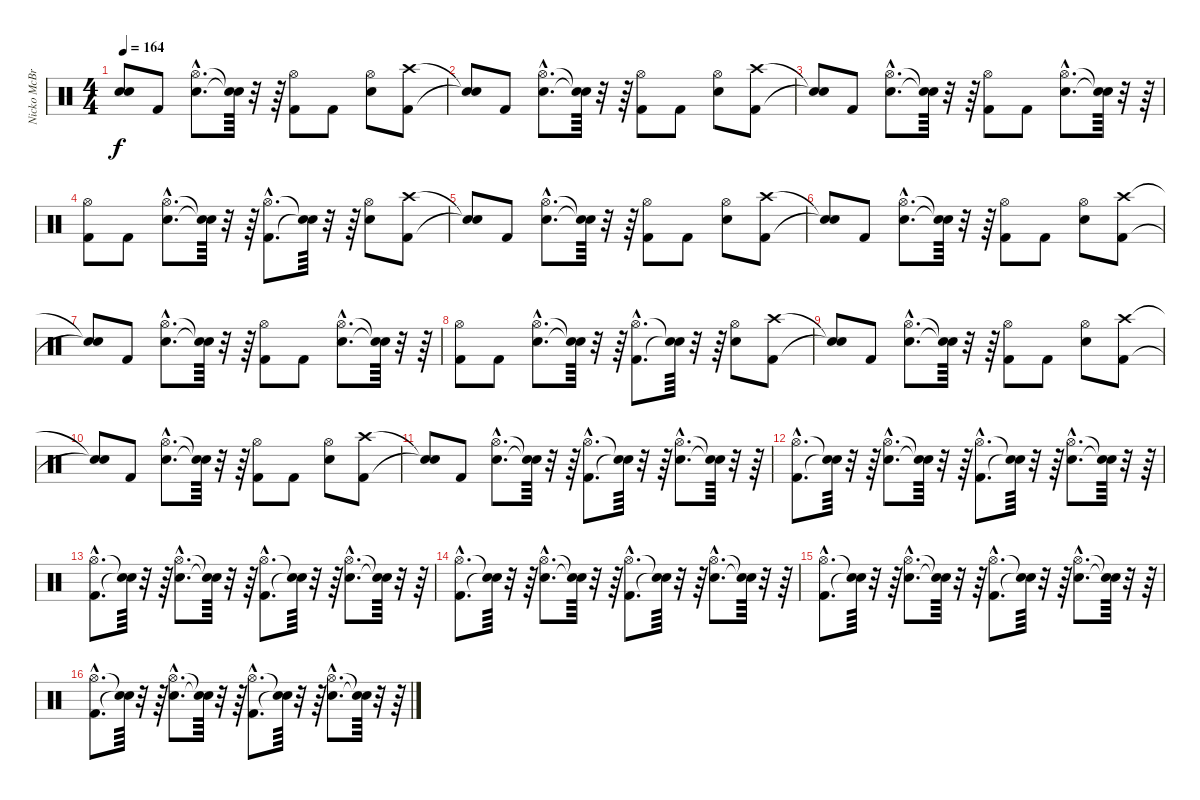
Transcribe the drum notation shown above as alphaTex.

\track ("Nicko McBrian (Drums)" "Nicko McBr") {instrument percussion}
\staff {score}
\articulation defaults
\ts (4 4)
\tempo 164
\clef neutral
\ks c
("Snare (hit)"{t} "Snare (hit)"{t}).8{dy f} "Kick (hit) 2".8 ("Snare (hit) 2"{hac} "Hi-Hat (open)"{hac}).8{d} ("Snare (hit)"{t} "Snare (hit)"{t}).64 r.32 r.64 ("Kick (hit) 2" "Hi-Hat (open)").8 "Kick (hit) 2".8 ("Snare (hit) 2" "Hi-Hat (open)").8 ("Kick (hit) 2" "Crash high (hit)").8 |
("Snare (hit)"{t} "Snare (hit)"{t}).8 "Kick (hit) 2".8 ("Snare (hit) 2"{hac} "Hi-Hat (open)"{hac}).8{d} ("Snare (hit)"{t} "Snare (hit)"{t}).64 r.32 r.64 ("Kick (hit) 2" "Hi-Hat (open)").8 "Kick (hit) 2".8 ("Snare (hit) 2" "Hi-Hat (open)").8 ("Kick (hit) 2" "Crash high (hit)").8 |
("Snare (hit)"{t} "Snare (hit)"{t}).8 "Kick (hit) 2".8 ("Snare (hit) 2"{hac} "Hi-Hat (open)"{hac}).8{d} ("Snare (hit)"{t} "Snare (hit)"{t}).64 r.32 r.64 ("Kick (hit) 2" "Hi-Hat (open)").8 "Kick (hit) 2".8 ("Snare (hit) 2"{hac} "Hi-Hat (open)"{hac}).8{d} ("Snare (hit)"{t} "Snare (hit)"{t}).64 r.32 r.64 |
("Kick (hit) 2" "Hi-Hat (open)").8 "Kick (hit) 2".8 ("Snare (hit) 2"{hac} "Hi-Hat (open)"{hac}).8{d} ("Snare (hit)"{t} "Snare (hit)"{t}).64 r.32 r.64 ("Kick (hit) 2"{hac} "Hi-Hat (open)"{hac}).8{d} ("Snare (hit)"{t} "Snare (hit)"{t}).64 r.32 r.64 ("Snare (hit) 2" "Hi-Hat (open)").8 ("Kick (hit) 2" "Crash high (hit)").8 |
("Snare (hit)"{t} "Snare (hit)"{t}).8 "Kick (hit) 2".8 ("Snare (hit) 2"{hac} "Hi-Hat (open)"{hac}).8{d} ("Snare (hit)"{t} "Snare (hit)"{t}).64 r.32 r.64 ("Kick (hit) 2" "Hi-Hat (open)").8 "Kick (hit) 2".8 ("Snare (hit) 2" "Hi-Hat (open)").8 ("Kick (hit) 2" "Crash high (hit)").8 |
("Snare (hit)"{t} "Snare (hit)"{t}).8 "Kick (hit) 2".8 ("Snare (hit) 2"{hac} "Hi-Hat (open)"{hac}).8{d} ("Snare (hit)"{t} "Snare (hit)"{t}).64 r.32 r.64 ("Kick (hit) 2" "Hi-Hat (open)").8 "Kick (hit) 2".8 ("Snare (hit) 2" "Hi-Hat (open)").8 ("Kick (hit) 2" "Crash high (hit)").8 |
("Snare (hit)"{t} "Snare (hit)"{t}).8 "Kick (hit) 2".8 ("Snare (hit) 2"{hac} "Hi-Hat (open)"{hac}).8{d} ("Snare (hit)"{t} "Snare (hit)"{t}).64 r.32 r.64 ("Kick (hit) 2" "Hi-Hat (open)").8 "Kick (hit) 2".8 ("Snare (hit) 2"{hac} "Hi-Hat (open)"{hac}).8{d} ("Snare (hit)"{t} "Snare (hit)"{t}).64 r.32 r.64 |
("Kick (hit) 2" "Hi-Hat (open)").8 "Kick (hit) 2".8 ("Snare (hit) 2"{hac} "Hi-Hat (open)"{hac}).8{d} ("Snare (hit)"{t} "Snare (hit)"{t}).64 r.32 r.64 ("Kick (hit) 2"{hac} "Hi-Hat (open)"{hac}).8{d} ("Snare (hit)"{t} "Snare (hit)"{t}).64 r.32 r.64 ("Snare (hit) 2" "Hi-Hat (open)").8 ("Kick (hit) 2" "Crash high (hit)").8 |
("Snare (hit)"{t} "Snare (hit)"{t}).8 "Kick (hit) 2".8 ("Snare (hit) 2"{hac} "Hi-Hat (open)"{hac}).8{d} ("Snare (hit)"{t} "Snare (hit)"{t}).64 r.32 r.64 ("Kick (hit) 2" "Hi-Hat (open)").8 "Kick (hit) 2".8 ("Snare (hit) 2" "Hi-Hat (open)").8 ("Kick (hit) 2" "Crash high (hit)").8 |
("Snare (hit)"{t} "Snare (hit)"{t}).8 "Kick (hit) 2".8 ("Snare (hit) 2"{hac} "Hi-Hat (open)"{hac}).8{d} ("Snare (hit)"{t} "Snare (hit)"{t}).64 r.32 r.64 ("Kick (hit) 2" "Hi-Hat (open)").8 "Kick (hit) 2".8 ("Snare (hit) 2" "Hi-Hat (open)").8 ("Kick (hit) 2" "Crash high (hit)").8 |
("Snare (hit)"{t} "Snare (hit)"{t}).8 "Kick (hit) 2".8 ("Snare (hit) 2"{hac} "Hi-Hat (open)"{hac}).8{d} ("Snare (hit)"{t} "Snare (hit)"{t}).64 r.32 r.64 ("Kick (hit) 2"{hac} "Hi-Hat (open)"{hac}).8{d} ("Snare (hit)"{t} "Snare (hit)"{t}).64 r.32 r.64 ("Snare (hit) 2"{hac} "Hi-Hat (open)"{hac}).8{d} ("Snare (hit)"{t} "Snare (hit)"{t}).64 r.32 r.64 |
("Kick (hit) 2"{hac} "Hi-Hat (open)"{hac}).8{d} ("Snare (hit)"{t} "Snare (hit)"{t}).64 r.32 r.64 ("Snare (hit) 2"{hac} "Hi-Hat (open)"{hac}).8{d} ("Snare (hit)"{t} "Snare (hit)"{t}).64 r.32 r.64 ("Kick (hit) 2"{hac} "Hi-Hat (open)"{hac}).8{d} ("Snare (hit)"{t} "Snare (hit)"{t}).64 r.32 r.64 ("Snare (hit) 2"{hac} "Hi-Hat (open)"{hac}).8{d} ("Snare (hit)"{t} "Snare (hit)"{t}).64 r.32 r.64 |
("Kick (hit) 2"{hac} "Hi-Hat (open)"{hac}).8{d} ("Snare (hit)"{t} "Snare (hit)"{t}).64 r.32 r.64 ("Snare (hit) 2"{hac} "Hi-Hat (open)"{hac}).8{d} ("Snare (hit)"{t} "Snare (hit)"{t}).64 r.32 r.64 ("Kick (hit) 2"{hac} "Hi-Hat (open)"{hac}).8{d} ("Snare (hit)"{t} "Snare (hit)"{t}).64 r.32 r.64 ("Snare (hit) 2"{hac} "Hi-Hat (open)"{hac}).8{d} ("Snare (hit)"{t} "Snare (hit)"{t}).64 r.32 r.64 |
("Kick (hit) 2"{hac} "Hi-Hat (open)"{hac}).8{d} ("Snare (hit)"{t} "Snare (hit)"{t}).64 r.32 r.64 ("Snare (hit) 2"{hac} "Hi-Hat (open)"{hac}).8{d} ("Snare (hit)"{t} "Snare (hit)"{t}).64 r.32 r.64 ("Kick (hit) 2"{hac} "Hi-Hat (open)"{hac}).8{d} ("Snare (hit)"{t} "Snare (hit)"{t}).64 r.32 r.64 ("Snare (hit) 2"{hac} "Hi-Hat (open)"{hac}).8{d} ("Snare (hit)"{t} "Snare (hit)"{t}).64 r.32 r.64 |
("Kick (hit) 2"{hac} "Hi-Hat (open)"{hac}).8{d} ("Snare (hit)"{t} "Snare (hit)"{t}).64 r.32 r.64 ("Snare (hit) 2"{hac} "Hi-Hat (open)"{hac}).8{d} ("Snare (hit)"{t} "Snare (hit)"{t}).64 r.32 r.64 ("Kick (hit) 2"{hac} "Hi-Hat (open)"{hac}).8{d} ("Snare (hit)"{t} "Snare (hit)"{t}).64 r.32 r.64 ("Snare (hit) 2"{hac} "Hi-Hat (open)"{hac}).8{d} ("Snare (hit)"{t} "Snare (hit)"{t}).64 r.32 r.64 |
("Kick (hit) 2"{hac} "Hi-Hat (open)"{hac}).8{d} ("Snare (hit)"{t} "Snare (hit)"{t}).64 r.32 r.64 ("Snare (hit) 2"{hac} "Hi-Hat (open)"{hac}).8{d} ("Snare (hit)"{t} "Snare (hit)"{t}).64 r.32 r.64 ("Kick (hit) 2"{hac} "Hi-Hat (open)"{hac}).8{d} ("Snare (hit)"{t} "Snare (hit)"{t}).64 r.32 r.64 ("Snare (hit) 2"{hac} "Hi-Hat (open)"{hac}).8{d} ("Snare (hit)"{t} "Snare (hit)"{t}).64 r.32 r.64
